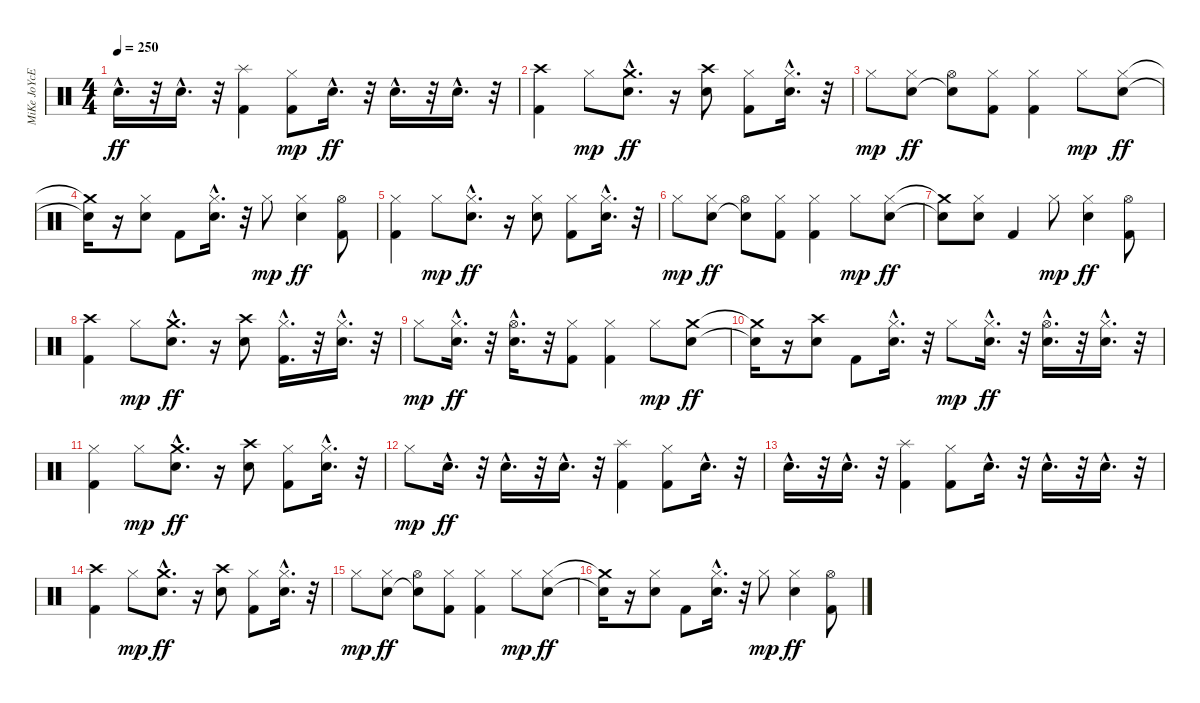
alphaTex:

\track ("MiKe JoYcE" "MiKe JoYcE") {instrument percussion}
\staff {score}
\articulation defaults
\ts (4 4)
\tempo 250
\clef neutral
\ks c "Electric Snare (hit)"{hac}.16{d dy ff}
r.32 "Electric Snare (hit)"{hac}.16{d} r.32 ("Splash (hit)" "Kick (hit) 2").4 ("Hi-Hat (closed)" "Kick (hit) 2").8{dy mp} "Electric Snare (hit)"{hac}.16{d dy ff} r.32 "Electric Snare (hit)"{hac}.16{d} r.32 "Electric Snare (hit)"{hac}.16{d} r.32 |
("Crash high (hit)" "Kick (hit) 2").4 "Hi-Hat (closed)".8{dy mp} ("Crash medium (hit)"{hac} "Electric Snare (hit)"{hac}).8{d dy ff} r.16 ("Crash high (hit)" "Electric Snare (hit)").8 ("Hi-Hat (closed)" "Kick (hit) 2").8 ("Hi-Hat (closed)"{hac} "Electric Snare (hit)"{hac}).16{d} r.32 |
"Hi-Hat (closed)".8{dy mp} ("Hi-Hat (closed)" "Electric Snare (hit)").8{dy ff} ("Hi-Hat (open)" "Electric Snare (hit)"{t}).8 ("Hi-Hat (closed)" "Kick (hit) 2").8 ("Hi-Hat (closed)" "Kick (hit) 2").4 "Hi-Hat (closed)".8{dy mp} ("Hi-Hat (closed)" "Electric Snare (hit)").8{dy ff} |
("Crash medium (hit)"{t} "Electric Snare (hit)"{t}).16 r.16 ("Hi-Hat (closed)" "Electric Snare (hit)").8 "Kick (hit) 2".8 ("Hi-Hat (closed)"{hac} "Electric Snare (hit)"{hac}).16{d} r.32 "Hi-Hat (closed)".8{dy mp} ("Hi-Hat (closed)" "Electric Snare (hit)").4{dy ff} ("Hi-Hat (open)" "Kick (hit) 2").8 |
("Hi-Hat (closed)" "Kick (hit) 2").4 "Hi-Hat (closed)".8{dy mp} ("Hi-Hat (closed)"{hac} "Electric Snare (hit)"{hac}).8{d dy ff} r.16 ("Hi-Hat (closed)" "Electric Snare (hit)").8 ("Hi-Hat (closed)" "Kick (hit) 2").8 ("Hi-Hat (closed)"{hac} "Electric Snare (hit)"{hac}).16{d} r.32 |
"Hi-Hat (closed)".8{dy mp} ("Hi-Hat (closed)" "Electric Snare (hit)").8{dy ff} ("Hi-Hat (open)" "Electric Snare (hit)"{t}).8 ("Hi-Hat (closed)" "Kick (hit) 2").8 ("Hi-Hat (closed)" "Kick (hit) 2").4 "Hi-Hat (closed)".8{dy mp} ("Hi-Hat (closed)" "Electric Snare (hit)").8{dy ff} |
("Crash medium (hit)"{t} "Electric Snare (hit)"{t}).8 ("Hi-Hat (closed)" "Electric Snare (hit)").8 "Kick (hit) 2".4 "Hi-Hat (closed)".8{dy mp} ("Hi-Hat (closed)" "Electric Snare (hit)").4{dy ff} ("Hi-Hat (open)" "Kick (hit) 2").8 |
("Crash high (hit)" "Kick (hit) 2").4 "Hi-Hat (closed)".8{dy mp} ("Crash medium (hit)"{hac} "Electric Snare (hit)"{hac}).8{d dy ff} r.16 ("Crash high (hit)" "Electric Snare (hit)").8 ("Hi-Hat (closed)"{hac} "Kick (hit) 2"{hac}).16{d} r.32 ("Hi-Hat (closed)"{hac} "Electric Snare (hit)"{hac}).16{d} r.32 |
"Hi-Hat (closed)".8{dy mp} ("Hi-Hat (closed)"{hac} "Electric Snare (hit)"{hac}).16{d dy ff} r.32 ("Hi-Hat (open)"{hac} "Electric Snare (hit)"{hac}).16{d} r.32 ("Hi-Hat (closed)" "Kick (hit) 2").8 ("Hi-Hat (closed)" "Kick (hit) 2").4 "Hi-Hat (closed)".8{dy mp} ("Crash medium (hit)" "Electric Snare (hit)").8{dy ff} |
("Crash medium (hit)"{t} "Electric Snare (hit)"{t}).16 r.16 ("Crash high (hit)" "Electric Snare (hit)").8 "Kick (hit) 2".8 ("Hi-Hat (closed)"{hac} "Electric Snare (hit)"{hac}).16{d} r.32 "Hi-Hat (closed)".8{dy mp} ("Hi-Hat (closed)"{hac} "Electric Snare (hit)"{hac}).16{d dy ff} r.32 ("Hi-Hat (open)"{hac} "Electric Snare (hit)"{hac}).16{d} r.32 ("Hi-Hat (closed)"{hac} "Electric Snare (hit)"{hac}).16{d} r.32 |
("Hi-Hat (closed)" "Kick (hit) 2").4 "Hi-Hat (closed)".8{dy mp} ("Crash medium (hit)"{hac} "Electric Snare (hit)"{hac}).8{d dy ff} r.16 ("Crash high (hit)" "Electric Snare (hit)").8 ("Hi-Hat (closed)" "Kick (hit) 2").8 ("Hi-Hat (closed)"{hac} "Electric Snare (hit)"{hac}).16{d} r.32 |
"Hi-Hat (closed)".8{dy mp} "Electric Snare (hit)"{hac}.16{d dy ff} r.32 "Electric Snare (hit)"{hac}.16{d} r.32 "Electric Snare (hit)"{hac}.16{d} r.32 ("Splash (hit)" "Kick (hit) 2").4 ("Hi-Hat (closed)" "Kick (hit) 2").8 "Electric Snare (hit)"{hac}.16{d} r.32 |
"Electric Snare (hit)"{hac}.16{d} r.32 "Electric Snare (hit)"{hac}.16{d} r.32 ("Splash (hit)" "Kick (hit) 2").4 ("Hi-Hat (closed)" "Kick (hit) 2").8 "Electric Snare (hit)"{hac}.16{d} r.32 "Electric Snare (hit)"{hac}.16{d} r.32 "Electric Snare (hit)"{hac}.16{d} r.32 |
("Crash high (hit)" "Kick (hit) 2").4 "Hi-Hat (closed)".8{dy mp} ("Crash medium (hit)"{hac} "Electric Snare (hit)"{hac}).8{d dy ff} r.16 ("Crash high (hit)" "Electric Snare (hit)").8 ("Hi-Hat (closed)" "Kick (hit) 2").8 ("Hi-Hat (closed)"{hac} "Electric Snare (hit)"{hac}).16{d} r.32 |
"Hi-Hat (closed)".8{dy mp} ("Hi-Hat (closed)" "Electric Snare (hit)").8{dy ff} ("Hi-Hat (open)" "Electric Snare (hit)"{t}).8 ("Hi-Hat (closed)" "Kick (hit) 2").8 ("Hi-Hat (closed)" "Kick (hit) 2").4 "Hi-Hat (closed)".8{dy mp} ("Hi-Hat (closed)" "Electric Snare (hit)").8{dy ff} |
("Crash medium (hit)"{t} "Electric Snare (hit)"{t}).16 r.16 ("Hi-Hat (closed)" "Electric Snare (hit)").8 "Kick (hit) 2".8 ("Hi-Hat (closed)"{hac} "Electric Snare (hit)"{hac}).16{d} r.32 "Hi-Hat (closed)".8{dy mp} ("Hi-Hat (closed)" "Electric Snare (hit)").4{dy ff} ("Hi-Hat (open)" "Kick (hit) 2").8
